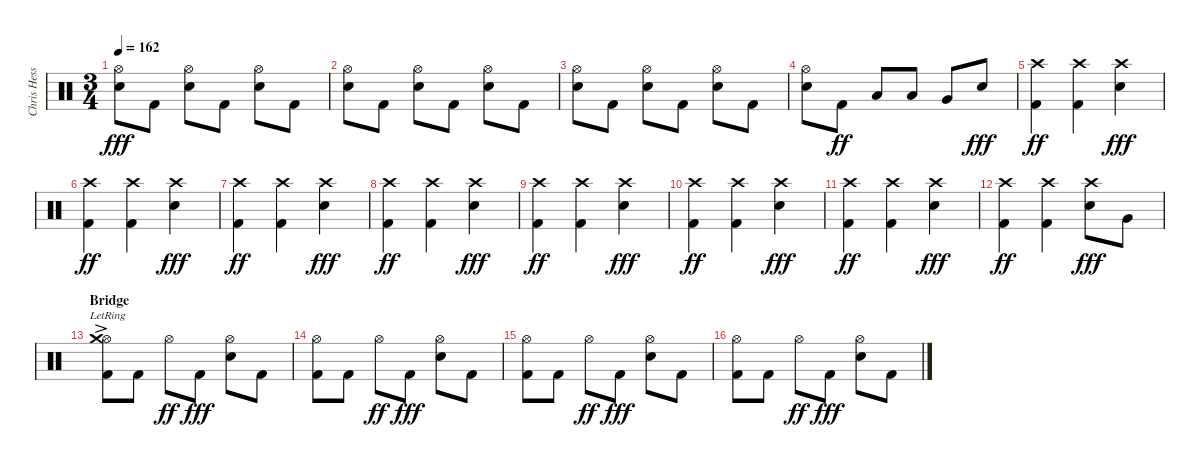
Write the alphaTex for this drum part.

\track ("Chris Hesse" "Chris Hess") {instrument percussion}
\staff {score}
\articulation defaults
\ts (3 4)
\tempo 162
\clef neutral
\ks c
("Hi-Hat (open)" "Snare (hit) 2").8{dy fff} "Kick (hit) 2".8 ("Hi-Hat (open)" "Snare (hit) 2").8 "Kick (hit) 2".8 ("Hi-Hat (open)" "Snare (hit) 2").8 "Kick (hit) 2".8 |
("Hi-Hat (open)" "Snare (hit) 2").8 "Kick (hit) 2".8 ("Hi-Hat (open)" "Snare (hit) 2").8 "Kick (hit) 2".8 ("Hi-Hat (open)" "Snare (hit) 2").8 "Kick (hit) 2".8 |
("Hi-Hat (open)" "Snare (hit) 2").8 "Kick (hit) 2".8 ("Hi-Hat (open)" "Snare (hit) 2").8 "Kick (hit) 2".8 ("Hi-Hat (open)" "Snare (hit) 2").8 "Kick (hit) 2".8 |
("Hi-Hat (open)" "Snare (hit) 2").8 "Kick (hit) 2".8{dy ff} "Low Floor Tom (hit)".8 "Low Tom (hit)".8 "Very Low Tom (hit)".8 "Snare (hit) 2".8{dy fff} |
("Crash high (hit)" "Kick (hit) 2").4{dy ff} ("Crash high (hit)" "Kick (hit) 2").4 ("Crash high (hit)" "Snare (hit) 2").4{dy fff} |
("Crash high (hit)" "Kick (hit) 2").4{dy ff} ("Crash high (hit)" "Kick (hit) 2").4 ("Crash high (hit)" "Snare (hit) 2").4{dy fff} |
("Crash high (hit)" "Kick (hit) 2").4{dy ff} ("Crash high (hit)" "Kick (hit) 2").4 ("Crash high (hit)" "Snare (hit) 2").4{dy fff} |
("Crash high (hit)" "Kick (hit) 2").4{dy ff} ("Crash high (hit)" "Kick (hit) 2").4 ("Crash high (hit)" "Snare (hit) 2").4{dy fff} |
("Crash high (hit)" "Kick (hit) 2").4{dy ff} ("Crash high (hit)" "Kick (hit) 2").4 ("Crash high (hit)" "Snare (hit) 2").4{dy fff} |
("Crash high (hit)" "Kick (hit) 2").4{dy ff} ("Crash high (hit)" "Kick (hit) 2").4 ("Crash high (hit)" "Snare (hit) 2").4{dy fff} |
("Crash high (hit)" "Kick (hit) 2").4{dy ff} ("Crash high (hit)" "Kick (hit) 2").4 ("Crash high (hit)" "Snare (hit) 2").4{dy fff} |
("Crash high (hit)" "Kick (hit) 2").4{dy ff} ("Crash high (hit)" "Kick (hit) 2").4 ("Crash high (hit)" "Snare (hit) 2").8{dy fff} "Very Low Tom (hit)".8 |
\section ("" "Bridge")
("Hi-Hat (open)" "Crash medium (hit)"{ac lr} "Kick (hit) 2").8 "Kick (hit) 2".8 "Hi-Hat (open)".8{dy ff} "Kick (hit) 2".8{dy fff} ("Hi-Hat (open)" "Snare (hit) 2").8 "Kick (hit) 2".8 |
("Hi-Hat (open)" "Kick (hit) 2").8 "Kick (hit) 2".8 "Hi-Hat (open)".8{dy ff} "Kick (hit) 2".8{dy fff} ("Hi-Hat (open)" "Snare (hit) 2").8 "Kick (hit) 2".8 |
("Hi-Hat (open)" "Kick (hit) 2").8 "Kick (hit) 2".8 "Hi-Hat (open)".8{dy ff} "Kick (hit) 2".8{dy fff} ("Hi-Hat (open)" "Snare (hit) 2").8 "Kick (hit) 2".8 |
("Hi-Hat (open)" "Kick (hit) 2").8 "Kick (hit) 2".8 "Hi-Hat (open)".8{dy ff} "Kick (hit) 2".8{dy fff} ("Hi-Hat (open)" "Snare (hit) 2").8 "Kick (hit) 2".8
